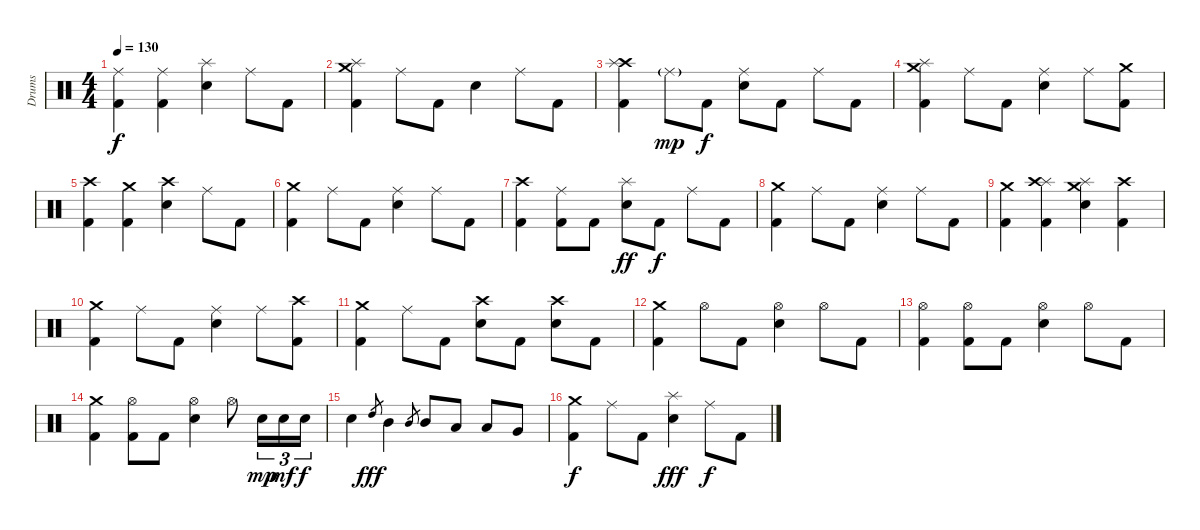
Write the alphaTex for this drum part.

\track ("Drums" "Drums") {instrument percussion}
\staff {score}
\articulation defaults
\ts (4 4)
\tempo 130
\clef neutral
\ks c
("Ride (middle)" "Kick (hit) 2").4{dy f} ("Ride (middle)" "Kick (hit) 2").4 ("Splash (hit)" "Snare (hit) 2").4 "Ride (middle)".8 "Kick (hit) 2".8 |
("Crash medium (hit)" "Splash (hit)" "Kick (hit) 2").4 "Ride (middle)".8 "Kick (hit) 2".8 "Snare (hit) 2".4 "Ride (middle)".8 "Kick (hit) 2".8 |
("Crash high (hit)" "Splash (hit)" "Kick (hit) 2").4 "Ride (middle)"{g}.8{dy mp} "Kick (hit) 2".8{dy f} ("Ride (middle)" "Snare (hit) 2").8 "Kick (hit) 2".8 "Ride (middle)".8 "Kick (hit) 2".8 |
("Crash medium (hit)" "Splash (hit)" "Kick (hit) 2").4 "Ride (middle)".8 "Kick (hit) 2".8 ("Ride (middle)" "Snare (hit) 2").4 "Ride (middle)".8 ("Crash medium (hit)" "Kick (hit) 2").8 |
("Crash high (hit)" "Kick (hit) 2").4 ("Crash medium (hit)" "Kick (hit) 2").4 ("Crash high (hit)" "Snare (hit) 2").4 "Ride (middle)".8 "Kick (hit) 2".8 |
("Crash medium (hit)" "Kick (hit) 2").4 "Ride (middle)".8 "Kick (hit) 2".8 ("Ride (middle)" "Snare (hit) 2").4 "Ride (middle)".8 "Kick (hit) 2".8 |
("Crash high (hit)" "Kick (hit) 2").4 ("Ride (middle)" "Kick (hit) 2").8 "Kick (hit) 2".8 ("Splash (hit)" "Snare (hit) 2").8{dy ff} "Kick (hit) 2".8{dy f} "Ride (middle)".8 "Kick (hit) 2".8 |
("Crash medium (hit)" "Kick (hit) 2").4 "Ride (middle)".8 "Kick (hit) 2".8 ("Ride (middle)" "Snare (hit) 2").4 "Ride (middle)".8 "Kick (hit) 2".8 |
("Crash medium (hit)" "Kick (hit) 2").4 ("Splash (hit)" "Crash high (hit)" "Kick (hit) 2").4 ("Crash medium (hit)" "Splash (hit)" "Snare (hit) 2").4 ("Crash high (hit)" "Kick (hit) 2").4 |
("Crash medium (hit)" "Kick (hit) 2").4{volume 9} "Ride (middle)".8 "Kick (hit) 2".8 ("Ride (middle)" "Snare (hit) 2").4 "Ride (middle)".8 ("Crash high (hit)" "Kick (hit) 2").8 |
("Crash medium (hit)" "Kick (hit) 2").4 "Ride (middle)".8 "Kick (hit) 2".8 ("Crash high (hit)" "Snare (hit) 2").8 "Kick (hit) 2".8 ("Crash high (hit)" "Snare (hit) 2").8 "Kick (hit) 2".8 |
("Crash medium (hit)" "Kick (hit) 2").4 "Hi-Hat (open)".8 "Kick (hit) 2".8 ("Hi-Hat (open)" "Snare (hit) 2").4 "Hi-Hat (open)".8 "Kick (hit) 2".8 |
("Hi-Hat (open)" "Kick (hit) 2").4 ("Hi-Hat (open)" "Kick (hit) 2").8 "Kick (hit) 2".8 ("Hi-Hat (open)" "Snare (hit) 2").4 "Hi-Hat (open)".8 "Kick (hit) 2".8 |
("Crash medium (hit)" "Kick (hit) 2").4{volume 7} ("Hi-Hat (open)" "Kick (hit) 2").8 "Kick (hit) 2".8 ("Hi-Hat (open)" "Snare (hit) 2").4 "Hi-Hat (open)".8 "Snare (hit) 2".16{tu (3 2) dy mp} "Snare (hit) 2".16{tu (3 2) dy mf} "Snare (hit) 2".16{tu (3 2) dy f} |
"Snare (hit) 2".4 "High Tom (hit)".8{gr dy fff} "Mid Tom (hit)".4 "Mid Tom (hit)".8{gr} "Mid Tom (hit)".8 "Low Tom (hit)".8 "Low Tom (hit)".8 "Very Low Tom (hit)".8 |
("Crash medium (hit)" "Kick (hit) 2").4{dy f} "Ride (middle)".8 "Kick (hit) 2".8 ("Splash (hit)" "Snare (hit) 2").4{dy fff} "Ride (middle)".8{dy f} "Kick (hit) 2".8
